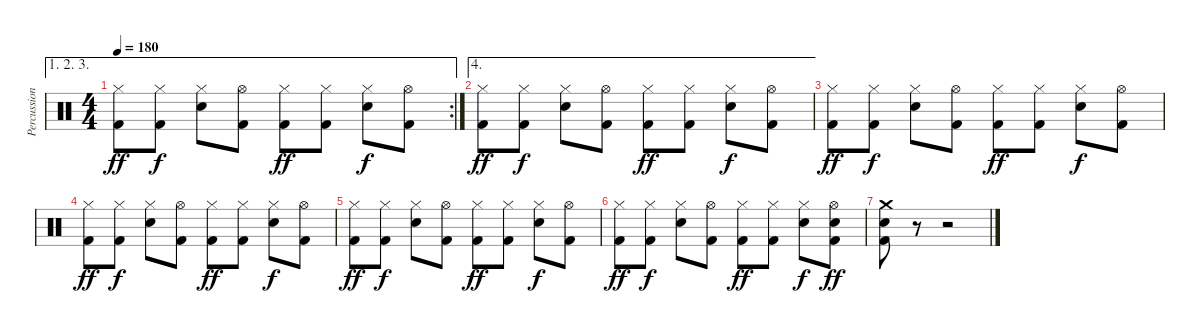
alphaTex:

\track ("Percussions" "Percussion") {instrument percussion}
\staff {score}
\articulation defaults
\ae (1 2 3)
\rc 2
\ts (4 4)
\tempo 180
\clef neutral
\ks c
("Hi-Hat (closed)" "Kick (hit) 2").8{dy ff} ("Hi-Hat (closed)" "Kick (hit) 2").8{dy f} ("Hi-Hat (closed)" "Snare (hit) 2").8 ("Hi-Hat (open)" "Kick (hit) 2").8 ("Hi-Hat (closed)" "Kick (hit) 2").8{dy ff} ("Hi-Hat (closed)" "Kick (hit) 2").8 ("Hi-Hat (closed)" "Snare (hit) 2").8{dy f} ("Hi-Hat (open)" "Kick (hit) 2").8 |
\ae 4
("Hi-Hat (closed)" "Kick (hit) 2").8{dy ff} ("Hi-Hat (closed)" "Kick (hit) 2").8{dy f} ("Hi-Hat (closed)" "Snare (hit) 2").8 ("Hi-Hat (open)" "Kick (hit) 2").8 ("Hi-Hat (closed)" "Kick (hit) 2").8{dy ff} ("Hi-Hat (closed)" "Kick (hit) 2").8 ("Hi-Hat (closed)" "Snare (hit) 2").8{dy f} ("Hi-Hat (open)" "Kick (hit) 2").8 |
("Hi-Hat (closed)" "Kick (hit) 2").8{dy ff} ("Hi-Hat (closed)" "Kick (hit) 2").8{dy f} ("Hi-Hat (closed)" "Snare (hit) 2").8 ("Hi-Hat (open)" "Kick (hit) 2").8 ("Hi-Hat (closed)" "Kick (hit) 2").8{dy ff} ("Hi-Hat (closed)" "Kick (hit) 2").8 ("Hi-Hat (closed)" "Snare (hit) 2").8{dy f} ("Hi-Hat (open)" "Kick (hit) 2").8 |
("Hi-Hat (closed)" "Kick (hit) 2").8{dy ff} ("Hi-Hat (closed)" "Kick (hit) 2").8{dy f} ("Hi-Hat (closed)" "Snare (hit) 2").8 ("Hi-Hat (open)" "Kick (hit) 2").8 ("Hi-Hat (closed)" "Kick (hit) 2").8{dy ff} ("Hi-Hat (closed)" "Kick (hit) 2").8 ("Hi-Hat (closed)" "Snare (hit) 2").8{dy f} ("Hi-Hat (open)" "Kick (hit) 2").8 |
("Hi-Hat (closed)" "Kick (hit) 2").8{dy ff} ("Hi-Hat (closed)" "Kick (hit) 2").8{dy f} ("Hi-Hat (closed)" "Snare (hit) 2").8 ("Hi-Hat (open)" "Kick (hit) 2").8 ("Hi-Hat (closed)" "Kick (hit) 2").8{dy ff} ("Hi-Hat (closed)" "Kick (hit) 2").8 ("Hi-Hat (closed)" "Snare (hit) 2").8{dy f} ("Hi-Hat (open)" "Kick (hit) 2").8 |
("Hi-Hat (closed)" "Kick (hit) 2").8{dy ff} ("Hi-Hat (closed)" "Kick (hit) 2").8{dy f} ("Hi-Hat (closed)" "Snare (hit) 2").8 ("Hi-Hat (open)" "Kick (hit) 2").8 ("Hi-Hat (closed)" "Kick (hit) 2").8{dy ff} ("Hi-Hat (closed)" "Kick (hit) 2").8 ("Hi-Hat (closed)" "Snare (hit) 2").8{dy f} ("Hi-Hat (open)" "Snare (hit) 2" "Kick (hit) 2").8{dy ff} |
("Crash medium (hit)" "Snare (hit) 2" "Kick (hit) 2").8 r.8 r.2
